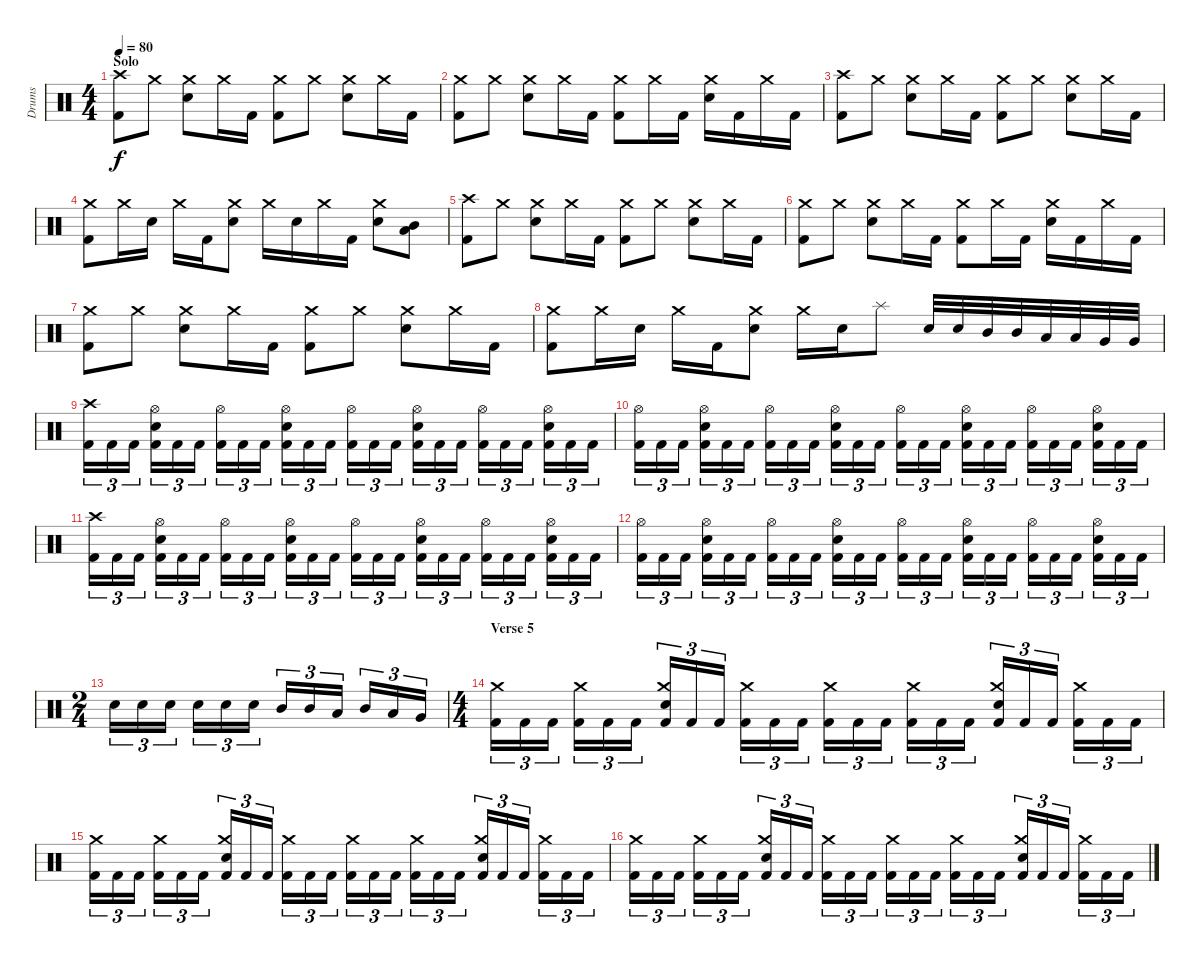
\track ("Drums" "Drums") {instrument percussion}
\staff {score}
\articulation defaults
\ts (4 4)
\section ("" "Solo")
\tempo 80
\clef neutral
\ks c
("Crash high (hit)" "Kick (hit) 2").8{dy f} "Crash medium (hit)".8 ("Crash medium (hit)" "Electric Snare (hit)").8 "Crash medium (hit)".16 "Kick (hit) 2".16 ("Crash medium (hit)" "Kick (hit) 2").8 "Crash medium (hit)".8 ("Crash medium (hit)" "Electric Snare (hit)").8 "Crash medium (hit)".16 "Kick (hit) 2".16 |
("Crash medium (hit)" "Kick (hit) 2").8 "Crash medium (hit)".8 ("Crash medium (hit)" "Electric Snare (hit)").8 "Crash medium (hit)".16 "Kick (hit) 2".16 ("Crash medium (hit)" "Kick (hit) 2").8 "Crash medium (hit)".16 "Kick (hit) 2".16 ("Crash medium (hit)" "Electric Snare (hit)").16 "Kick (hit) 2".16 "Crash medium (hit)".16 "Kick (hit) 2".16 |
("Crash high (hit)" "Kick (hit) 2").8 "Crash medium (hit)".8 ("Crash medium (hit)" "Electric Snare (hit)").8 "Crash medium (hit)".16 "Kick (hit) 2".16 ("Crash medium (hit)" "Kick (hit) 2").8 "Crash medium (hit)".8 ("Crash medium (hit)" "Electric Snare (hit)").8 "Crash medium (hit)".16 "Kick (hit) 2".16 |
("Crash medium (hit)" "Kick (hit) 2").8 "Crash medium (hit)".16 "Electric Snare (hit)".16 "Crash medium (hit)".16 "Kick (hit) 2".16 ("Crash medium (hit)" "Electric Snare (hit)").8 "Crash medium (hit)".16 "Electric Snare (hit)".16 "Crash medium (hit)".16 "Kick (hit) 2".16 ("Crash medium (hit)" "Electric Snare (hit)").8 ("Mid Tom (hit)" "Low Tom (hit)").8 |
("Crash high (hit)" "Kick (hit) 2").8 "Crash medium (hit)".8 ("Crash medium (hit)" "Electric Snare (hit)").8 "Crash medium (hit)".16 "Kick (hit) 2".16 ("Crash medium (hit)" "Kick (hit) 2").8 "Crash medium (hit)".8 ("Crash medium (hit)" "Electric Snare (hit)").8 "Crash medium (hit)".16 "Kick (hit) 2".16 |
("Crash medium (hit)" "Kick (hit) 2").8 "Crash medium (hit)".8 ("Crash medium (hit)" "Electric Snare (hit)").8 "Crash medium (hit)".16 "Kick (hit) 2".16 ("Crash medium (hit)" "Kick (hit) 2").8 "Crash medium (hit)".16 "Kick (hit) 2".16 ("Crash medium (hit)" "Electric Snare (hit)").16 "Kick (hit) 2".16 "Crash medium (hit)".16 "Kick (hit) 2".16 |
("Crash medium (hit)" "Kick (hit) 2").8 "Crash medium (hit)".8 ("Crash medium (hit)" "Electric Snare (hit)").8 "Crash medium (hit)".16 "Kick (hit) 2".16 ("Crash medium (hit)" "Kick (hit) 2").8 "Crash medium (hit)".8 ("Crash medium (hit)" "Electric Snare (hit)").8 "Crash medium (hit)".16 "Kick (hit) 2".16 |
("Crash medium (hit)" "Kick (hit) 2").8 "Crash medium (hit)".16 "Electric Snare (hit)".16 "Crash medium (hit)".16 "Kick (hit) 2".16 ("Crash medium (hit)" "Electric Snare (hit)").8 "Crash medium (hit)".16 "Electric Snare (hit)".16 "Splash (hit)".8 "Electric Snare (hit)".32 "Electric Snare (hit)".32 "Mid Tom (hit)".32 "Mid Tom (hit)".32 "Low Tom (hit)".32 "Low Tom (hit)".32 "Very Low Tom (hit)".32 "Very Low Tom (hit)".32 |
("Crash high (hit)" "Kick (hit) 2").16{tu (3 2)} "Kick (hit) 2".16{tu (3 2)} "Kick (hit) 2".16{tu (3 2)} ("Hi-Hat (open)" "Electric Snare (hit)" "Kick (hit) 2").16{tu (3 2)} "Kick (hit) 2".16{tu (3 2)} "Kick (hit) 2".16{tu (3 2)} ("Hi-Hat (open)" "Kick (hit) 2").16{tu (3 2)} "Kick (hit) 2".16{tu (3 2)} "Kick (hit) 2".16{tu (3 2)} ("Hi-Hat (open)" "Electric Snare (hit)" "Kick (hit) 2").16{tu (3 2)} "Kick (hit) 2".16{tu (3 2)} "Kick (hit) 2".16{tu (3 2)} ("Hi-Hat (open)" "Kick (hit) 2").16{tu (3 2)} "Kick (hit) 2".16{tu (3 2)} "Kick (hit) 2".16{tu (3 2)} ("Hi-Hat (open)" "Electric Snare (hit)" "Kick (hit) 2").16{tu (3 2)} "Kick (hit) 2".16{tu (3 2)} "Kick (hit) 2".16{tu (3 2)} ("Hi-Hat (open)" "Kick (hit) 2").16{tu (3 2)} "Kick (hit) 2".16{tu (3 2)} "Kick (hit) 2".16{tu (3 2)} ("Hi-Hat (open)" "Electric Snare (hit)" "Kick (hit) 2").16{tu (3 2)} "Kick (hit) 2".16{tu (3 2)} "Kick (hit) 2".16{tu (3 2)} |
("Hi-Hat (open)" "Kick (hit) 2").16{tu (3 2)} "Kick (hit) 2".16{tu (3 2)} "Kick (hit) 2".16{tu (3 2)} ("Hi-Hat (open)" "Electric Snare (hit)" "Kick (hit) 2").16{tu (3 2)} "Kick (hit) 2".16{tu (3 2)} "Kick (hit) 2".16{tu (3 2)} ("Hi-Hat (open)" "Kick (hit) 2").16{tu (3 2)} "Kick (hit) 2".16{tu (3 2)} "Kick (hit) 2".16{tu (3 2)} ("Hi-Hat (open)" "Electric Snare (hit)" "Kick (hit) 2").16{tu (3 2)} "Kick (hit) 2".16{tu (3 2)} "Kick (hit) 2".16{tu (3 2)} ("Hi-Hat (open)" "Kick (hit) 2").16{tu (3 2)} "Kick (hit) 2".16{tu (3 2)} "Kick (hit) 2".16{tu (3 2)} ("Hi-Hat (open)" "Electric Snare (hit)" "Kick (hit) 2").16{tu (3 2)} "Kick (hit) 2".16{tu (3 2)} "Kick (hit) 2".16{tu (3 2)} ("Hi-Hat (open)" "Kick (hit) 2").16{tu (3 2)} "Kick (hit) 2".16{tu (3 2)} "Kick (hit) 2".16{tu (3 2)} ("Hi-Hat (open)" "Electric Snare (hit)" "Kick (hit) 2").16{tu (3 2)} "Kick (hit) 2".16{tu (3 2)} "Kick (hit) 2".16{tu (3 2)} |
("Crash high (hit)" "Kick (hit) 2").16{tu (3 2)} "Kick (hit) 2".16{tu (3 2)} "Kick (hit) 2".16{tu (3 2)} ("Hi-Hat (open)" "Electric Snare (hit)" "Kick (hit) 2").16{tu (3 2)} "Kick (hit) 2".16{tu (3 2)} "Kick (hit) 2".16{tu (3 2)} ("Hi-Hat (open)" "Kick (hit) 2").16{tu (3 2)} "Kick (hit) 2".16{tu (3 2)} "Kick (hit) 2".16{tu (3 2)} ("Hi-Hat (open)" "Electric Snare (hit)" "Kick (hit) 2").16{tu (3 2)} "Kick (hit) 2".16{tu (3 2)} "Kick (hit) 2".16{tu (3 2)} ("Hi-Hat (open)" "Kick (hit) 2").16{tu (3 2)} "Kick (hit) 2".16{tu (3 2)} "Kick (hit) 2".16{tu (3 2)} ("Hi-Hat (open)" "Electric Snare (hit)" "Kick (hit) 2").16{tu (3 2)} "Kick (hit) 2".16{tu (3 2)} "Kick (hit) 2".16{tu (3 2)} ("Hi-Hat (open)" "Kick (hit) 2").16{tu (3 2)} "Kick (hit) 2".16{tu (3 2)} "Kick (hit) 2".16{tu (3 2)} ("Hi-Hat (open)" "Electric Snare (hit)" "Kick (hit) 2").16{tu (3 2)} "Kick (hit) 2".16{tu (3 2)} "Kick (hit) 2".16{tu (3 2)} |
("Hi-Hat (open)" "Kick (hit) 2").16{tu (3 2)} "Kick (hit) 2".16{tu (3 2)} "Kick (hit) 2".16{tu (3 2)} ("Hi-Hat (open)" "Electric Snare (hit)" "Kick (hit) 2").16{tu (3 2)} "Kick (hit) 2".16{tu (3 2)} "Kick (hit) 2".16{tu (3 2)} ("Hi-Hat (open)" "Kick (hit) 2").16{tu (3 2)} "Kick (hit) 2".16{tu (3 2)} "Kick (hit) 2".16{tu (3 2)} ("Hi-Hat (open)" "Electric Snare (hit)" "Kick (hit) 2").16{tu (3 2)} "Kick (hit) 2".16{tu (3 2)} "Kick (hit) 2".16{tu (3 2)} ("Hi-Hat (open)" "Kick (hit) 2").16{tu (3 2)} "Kick (hit) 2".16{tu (3 2)} "Kick (hit) 2".16{tu (3 2)} ("Hi-Hat (open)" "Electric Snare (hit)" "Kick (hit) 2").16{tu (3 2)} "Kick (hit) 2".16{tu (3 2)} "Kick (hit) 2".16{tu (3 2)} ("Hi-Hat (open)" "Kick (hit) 2").16{tu (3 2)} "Kick (hit) 2".16{tu (3 2)} "Kick (hit) 2".16{tu (3 2)} ("Hi-Hat (open)" "Electric Snare (hit)" "Kick (hit) 2").16{tu (3 2)} "Kick (hit) 2".16{tu (3 2)} "Kick (hit) 2".16{tu (3 2)} |
\ts (2 4)
"Electric Snare (hit)".16{tu (3 2)} "Electric Snare (hit)".16{tu (3 2)} "Electric Snare (hit)".16{tu (3 2)} "Electric Snare (hit)".16{tu (3 2)} "Electric Snare (hit)".16{tu (3 2)} "Electric Snare (hit)".16{tu (3 2)} "Mid Tom (hit)".16{tu (3 2)} "Mid Tom (hit)".16{tu (3 2)} "Low Tom (hit)".16{tu (3 2)} "Mid Tom (hit)".16{tu (3 2)} "Low Tom (hit)".16{tu (3 2)} "Very Low Tom (hit)".16{tu (3 2)} |
\ts (4 4)
\section ("" "Verse 5")
("Crash medium (hit)" "Kick (hit) 2").16{tu (3 2)} "Kick (hit) 2".16{tu (3 2)} "Kick (hit) 2".16{tu (3 2)} ("Crash medium (hit)" "Kick (hit) 2").16{tu (3 2)} "Kick (hit) 2".16{tu (3 2)} "Kick (hit) 2".16{tu (3 2)} ("Crash medium (hit)" "Electric Snare (hit)" "Kick (hit) 2").16{tu (3 2)} "Kick (hit) 2".16{tu (3 2)} "Kick (hit) 2".16{tu (3 2)} ("Crash medium (hit)" "Kick (hit) 2").16{tu (3 2)} "Kick (hit) 2".16{tu (3 2)} "Kick (hit) 2".16{tu (3 2)} ("Crash medium (hit)" "Kick (hit) 2").16{tu (3 2)} "Kick (hit) 2".16{tu (3 2)} "Kick (hit) 2".16{tu (3 2)} ("Crash medium (hit)" "Kick (hit) 2").16{tu (3 2)} "Kick (hit) 2".16{tu (3 2)} "Kick (hit) 2".16{tu (3 2)} ("Crash medium (hit)" "Electric Snare (hit)" "Kick (hit) 2").16{tu (3 2)} "Kick (hit) 2".16{tu (3 2)} "Kick (hit) 2".16{tu (3 2)} ("Crash medium (hit)" "Kick (hit) 2").16{tu (3 2)} "Kick (hit) 2".16{tu (3 2)} "Kick (hit) 2".16{tu (3 2)} |
("Crash medium (hit)" "Kick (hit) 2").16{tu (3 2)} "Kick (hit) 2".16{tu (3 2)} "Kick (hit) 2".16{tu (3 2)} ("Crash medium (hit)" "Kick (hit) 2").16{tu (3 2)} "Kick (hit) 2".16{tu (3 2)} "Kick (hit) 2".16{tu (3 2)} ("Crash medium (hit)" "Electric Snare (hit)" "Kick (hit) 2").16{tu (3 2)} "Kick (hit) 2".16{tu (3 2)} "Kick (hit) 2".16{tu (3 2)} ("Crash medium (hit)" "Kick (hit) 2").16{tu (3 2)} "Kick (hit) 2".16{tu (3 2)} "Kick (hit) 2".16{tu (3 2)} ("Crash medium (hit)" "Kick (hit) 2").16{tu (3 2)} "Kick (hit) 2".16{tu (3 2)} "Kick (hit) 2".16{tu (3 2)} ("Crash medium (hit)" "Kick (hit) 2").16{tu (3 2)} "Kick (hit) 2".16{tu (3 2)} "Kick (hit) 2".16{tu (3 2)} ("Crash medium (hit)" "Electric Snare (hit)" "Kick (hit) 2").16{tu (3 2)} "Kick (hit) 2".16{tu (3 2)} "Kick (hit) 2".16{tu (3 2)} ("Crash medium (hit)" "Kick (hit) 2").16{tu (3 2)} "Kick (hit) 2".16{tu (3 2)} "Kick (hit) 2".16{tu (3 2)} |
("Crash medium (hit)" "Kick (hit) 2").16{tu (3 2)} "Kick (hit) 2".16{tu (3 2)} "Kick (hit) 2".16{tu (3 2)} ("Crash medium (hit)" "Kick (hit) 2").16{tu (3 2)} "Kick (hit) 2".16{tu (3 2)} "Kick (hit) 2".16{tu (3 2)} ("Crash medium (hit)" "Electric Snare (hit)" "Kick (hit) 2").16{tu (3 2)} "Kick (hit) 2".16{tu (3 2)} "Kick (hit) 2".16{tu (3 2)} ("Crash medium (hit)" "Kick (hit) 2").16{tu (3 2)} "Kick (hit) 2".16{tu (3 2)} "Kick (hit) 2".16{tu (3 2)} ("Crash medium (hit)" "Kick (hit) 2").16{tu (3 2)} "Kick (hit) 2".16{tu (3 2)} "Kick (hit) 2".16{tu (3 2)} ("Crash medium (hit)" "Kick (hit) 2").16{tu (3 2)} "Kick (hit) 2".16{tu (3 2)} "Kick (hit) 2".16{tu (3 2)} ("Crash medium (hit)" "Electric Snare (hit)" "Kick (hit) 2").16{tu (3 2)} "Kick (hit) 2".16{tu (3 2)} "Kick (hit) 2".16{tu (3 2)} ("Crash medium (hit)" "Kick (hit) 2").16{tu (3 2)} "Kick (hit) 2".16{tu (3 2)} "Kick (hit) 2".16{tu (3 2)}
